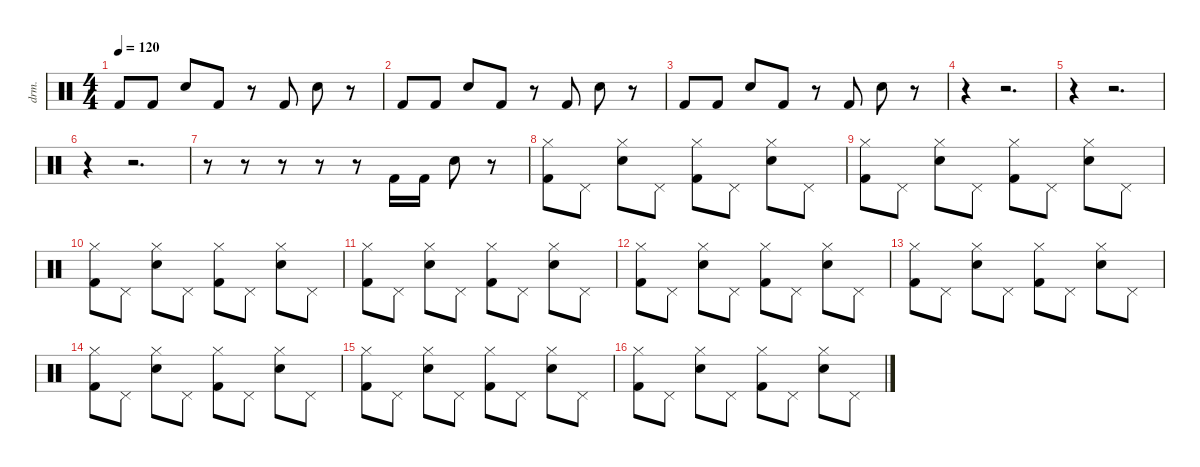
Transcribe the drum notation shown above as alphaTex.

\defaultSystemsLayout 4
\hideDynamics
\bracketExtendMode nobrackets
\otherSystemsTrackNameOrientation horizontal
\track ("Percussion" "drm.") {instrument percussion}
\staff {score}
\articulation defaults
\ts (4 4)
\tempo 120
\clef neutral
\ks c "Kick (hit) 2".8{dy f beam Up} "Kick (hit) 2".8{beam Up} "Snare (hit) 2".8{beam Up} "Kick (hit) 2".8{beam Up}
r.8{beam Up} "Kick (hit) 2".8{beam Up} "Snare (hit) 2".8{beam Down} r.8{beam Down} |
"Kick (hit) 2".8{beam Up} "Kick (hit) 2".8{beam Up} "Snare (hit) 2".8{beam Up} "Kick (hit) 2".8{beam Up} r.8{beam Up} "Kick (hit) 2".8{beam Up} "Snare (hit) 2".8{beam Down} r.8{beam Down} |
"Kick (hit) 2".8{beam Up} "Kick (hit) 2".8{beam Up} "Snare (hit) 2".8{beam Up} "Kick (hit) 2".8{beam Up} r.8{beam Up} "Kick (hit) 2".8{beam Up} "Snare (hit) 2".8{beam Down} r.8{beam Down} |
r.4{beam Down} r.2{d beam Down} |
r.4{beam Down} r.2{d beam Down} |
r.4{beam Down} r.2{d beam Down} |
r.8{beam Down} r.8{beam Down} r.8{beam Down} r.8{beam Down} r.8{beam Down} "Kick (hit) 2".16{beam Up} "Kick (hit) 2".16{beam Up} "Snare (hit) 2".8{beam Down} r.8{beam Down} |
("Kick (hit) 2" "Hi-Hat (closed)").8{beam Down} "Pedal Hi-Hat (hit)".8{beam Down} ("Snare (hit) 2" "Hi-Hat (closed)").8{beam Down} "Pedal Hi-Hat (hit)".8{beam Down} ("Kick (hit) 2" "Hi-Hat (closed)").8{beam Down} "Pedal Hi-Hat (hit)".8{beam Down} ("Snare (hit) 2" "Hi-Hat (closed)").8{beam Down} "Pedal Hi-Hat (hit)".8{beam Down} |
("Kick (hit) 2" "Hi-Hat (closed)").8{beam Down} "Pedal Hi-Hat (hit)".8{beam Down} ("Snare (hit) 2" "Hi-Hat (closed)").8{beam Down} "Pedal Hi-Hat (hit)".8{beam Down} ("Kick (hit) 2" "Hi-Hat (closed)").8{beam Down} "Pedal Hi-Hat (hit)".8{beam Down} ("Snare (hit) 2" "Hi-Hat (closed)").8{beam Down} "Pedal Hi-Hat (hit)".8{beam Down} |
("Kick (hit) 2" "Hi-Hat (closed)").8{beam Down} "Pedal Hi-Hat (hit)".8{beam Down} ("Snare (hit) 2" "Hi-Hat (closed)").8{beam Down} "Pedal Hi-Hat (hit)".8{beam Down} ("Kick (hit) 2" "Hi-Hat (closed)").8{beam Down} "Pedal Hi-Hat (hit)".8{beam Down} ("Snare (hit) 2" "Hi-Hat (closed)").8{beam Down} "Pedal Hi-Hat (hit)".8{beam Down} |
("Kick (hit) 2" "Hi-Hat (closed)").8{beam Down} "Pedal Hi-Hat (hit)".8{beam Down} ("Snare (hit) 2" "Hi-Hat (closed)").8{beam Down} "Pedal Hi-Hat (hit)".8{beam Down} ("Kick (hit) 2" "Hi-Hat (closed)").8{beam Down} "Pedal Hi-Hat (hit)".8{beam Down} ("Snare (hit) 2" "Hi-Hat (closed)").8{beam Down} "Pedal Hi-Hat (hit)".8{beam Down} |
("Kick (hit) 2" "Hi-Hat (closed)").8{beam Down} "Pedal Hi-Hat (hit)".8{beam Down} ("Snare (hit) 2" "Hi-Hat (closed)").8{beam Down} "Pedal Hi-Hat (hit)".8{beam Down} ("Kick (hit) 2" "Hi-Hat (closed)").8{beam Down} "Pedal Hi-Hat (hit)".8{beam Down} ("Snare (hit) 2" "Hi-Hat (closed)").8{beam Down} "Pedal Hi-Hat (hit)".8{beam Down} |
("Kick (hit) 2" "Hi-Hat (closed)").8{beam Down} "Pedal Hi-Hat (hit)".8{beam Down} ("Snare (hit) 2" "Hi-Hat (closed)").8{beam Down} "Pedal Hi-Hat (hit)".8{beam Down} ("Kick (hit) 2" "Hi-Hat (closed)").8{beam Down} "Pedal Hi-Hat (hit)".8{beam Down} ("Snare (hit) 2" "Hi-Hat (closed)").8{beam Down} "Pedal Hi-Hat (hit)".8{beam Down} |
("Kick (hit) 2" "Hi-Hat (closed)").8{beam Down} "Pedal Hi-Hat (hit)".8{beam Down} ("Snare (hit) 2" "Hi-Hat (closed)").8{beam Down} "Pedal Hi-Hat (hit)".8{beam Down} ("Kick (hit) 2" "Hi-Hat (closed)").8{beam Down} "Pedal Hi-Hat (hit)".8{beam Down} ("Snare (hit) 2" "Hi-Hat (closed)").8{beam Down} "Pedal Hi-Hat (hit)".8{beam Down} |
("Kick (hit) 2" "Hi-Hat (closed)").8{beam Down} "Pedal Hi-Hat (hit)".8{beam Down} ("Snare (hit) 2" "Hi-Hat (closed)").8{beam Down} "Pedal Hi-Hat (hit)".8{beam Down} ("Kick (hit) 2" "Hi-Hat (closed)").8{beam Down} "Pedal Hi-Hat (hit)".8{beam Down} ("Snare (hit) 2" "Hi-Hat (closed)").8{beam Down} "Pedal Hi-Hat (hit)".8{beam Down} |
("Kick (hit) 2" "Hi-Hat (closed)").8{beam Down} "Pedal Hi-Hat (hit)".8{beam Down} ("Snare (hit) 2" "Hi-Hat (closed)").8{beam Down} "Pedal Hi-Hat (hit)".8{beam Down} ("Kick (hit) 2" "Hi-Hat (closed)").8{beam Down} "Pedal Hi-Hat (hit)".8{beam Down} ("Snare (hit) 2" "Hi-Hat (closed)").8{beam Down} "Pedal Hi-Hat (hit)".8{beam Down}
